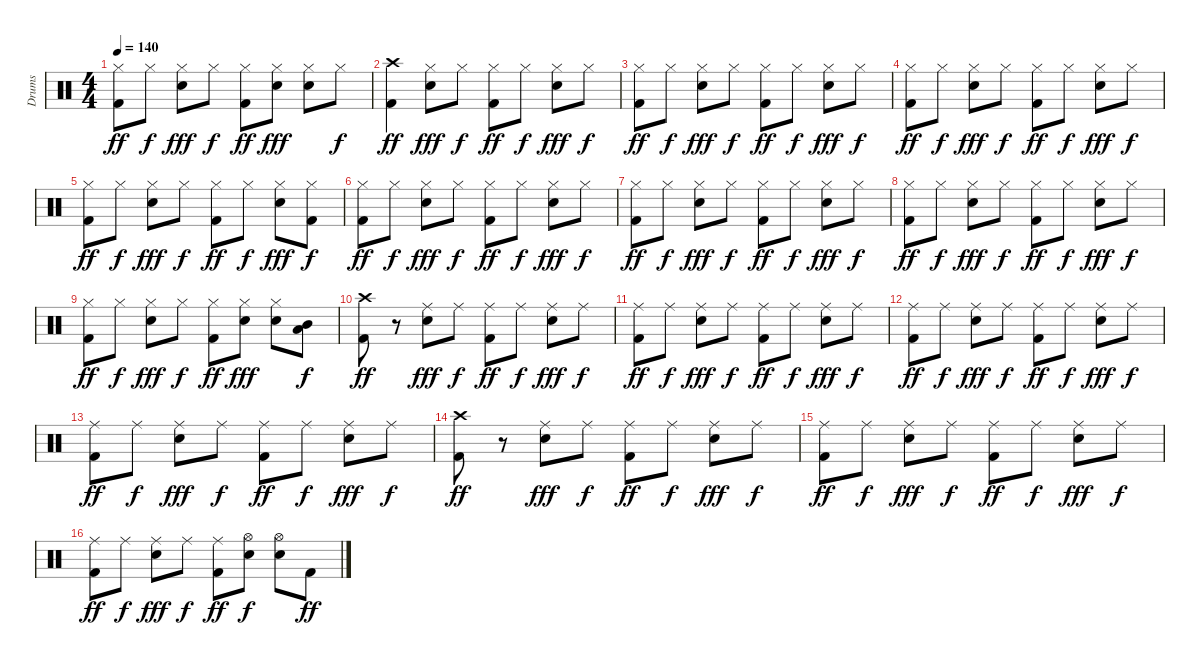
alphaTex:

\track ("Drums" "Drums") {instrument percussion}
\staff {score}
\articulation defaults
\ts (4 4)
\tempo 140
\clef neutral
\ks c
("Hi-Hat (closed)" "Kick (hit) 2").8{dy ff} "Hi-Hat (closed)".8{dy f} ("Hi-Hat (closed)" "Snare (hit) 2").8{dy fff} "Hi-Hat (closed)".8{dy f} ("Hi-Hat (closed)" "Kick (hit) 2").8{dy ff} ("Hi-Hat (closed)" "Snare (hit) 2").8{dy fff} ("Hi-Hat (closed)" "Snare (hit) 2").8 "Hi-Hat (closed)".8{dy f} |
("Crash high (hit)" "Kick (hit) 2").4{dy ff} ("Hi-Hat (closed)" "Snare (hit) 2").8{dy fff} "Hi-Hat (closed)".8{dy f} ("Hi-Hat (closed)" "Kick (hit) 2").8{dy ff} "Hi-Hat (closed)".8{dy f} ("Hi-Hat (closed)" "Snare (hit) 2").8{dy fff} "Hi-Hat (closed)".8{dy f} |
("Hi-Hat (closed)" "Kick (hit) 2").8{dy ff} "Hi-Hat (closed)".8{dy f} ("Hi-Hat (closed)" "Snare (hit) 2").8{dy fff} "Hi-Hat (closed)".8{dy f} ("Hi-Hat (closed)" "Kick (hit) 2").8{dy ff} "Hi-Hat (closed)".8{dy f} ("Hi-Hat (closed)" "Snare (hit) 2").8{dy fff} "Hi-Hat (closed)".8{dy f} |
("Hi-Hat (closed)" "Kick (hit) 2").8{dy ff} "Hi-Hat (closed)".8{dy f} ("Hi-Hat (closed)" "Snare (hit) 2").8{dy fff} "Hi-Hat (closed)".8{dy f} ("Hi-Hat (closed)" "Kick (hit) 2").8{dy ff} "Hi-Hat (closed)".8{dy f} ("Hi-Hat (closed)" "Snare (hit) 2").8{dy fff} "Hi-Hat (closed)".8{dy f} |
("Hi-Hat (closed)" "Kick (hit) 2").8{dy ff} "Hi-Hat (closed)".8{dy f} ("Hi-Hat (closed)" "Snare (hit) 2").8{dy fff} "Hi-Hat (closed)".8{dy f} ("Hi-Hat (closed)" "Kick (hit) 2").8{dy ff} "Hi-Hat (closed)".8{dy f} ("Hi-Hat (closed)" "Snare (hit) 2").8{dy fff} ("Hi-Hat (closed)" "Kick (hit) 2").8{dy f} |
("Hi-Hat (closed)" "Kick (hit) 2").8{dy ff} "Hi-Hat (closed)".8{dy f} ("Hi-Hat (closed)" "Snare (hit) 2").8{dy fff} "Hi-Hat (closed)".8{dy f} ("Hi-Hat (closed)" "Kick (hit) 2").8{dy ff} "Hi-Hat (closed)".8{dy f} ("Hi-Hat (closed)" "Snare (hit) 2").8{dy fff} "Hi-Hat (closed)".8{dy f} |
("Hi-Hat (closed)" "Kick (hit) 2").8{dy ff} "Hi-Hat (closed)".8{dy f} ("Hi-Hat (closed)" "Snare (hit) 2").8{dy fff} "Hi-Hat (closed)".8{dy f} ("Hi-Hat (closed)" "Kick (hit) 2").8{dy ff} "Hi-Hat (closed)".8{dy f} ("Hi-Hat (closed)" "Snare (hit) 2").8{dy fff} "Hi-Hat (closed)".8{dy f} |
("Hi-Hat (closed)" "Kick (hit) 2").8{dy ff} "Hi-Hat (closed)".8{dy f} ("Hi-Hat (closed)" "Snare (hit) 2").8{dy fff} "Hi-Hat (closed)".8{dy f} ("Hi-Hat (closed)" "Kick (hit) 2").8{dy ff} "Hi-Hat (closed)".8{dy f} ("Hi-Hat (closed)" "Snare (hit) 2").8{dy fff} "Hi-Hat (closed)".8{dy f} |
("Hi-Hat (closed)" "Kick (hit) 2").8{dy ff} "Hi-Hat (closed)".8{dy f} ("Hi-Hat (closed)" "Snare (hit) 2").8{dy fff} "Hi-Hat (closed)".8{dy f} ("Hi-Hat (closed)" "Kick (hit) 2").8{dy ff} ("Hi-Hat (closed)" "Snare (hit) 2").8{dy fff} ("Hi-Hat (closed)" "Snare (hit) 2").8 ("Low Tom (hit)" "Mid Tom (hit)").8{dy f} |
("Crash high (hit)" "Kick (hit) 2").8{dy ff} r.8 ("Ride (middle)" "Snare (hit) 2").8{dy fff} "Ride (middle)".8{dy f} ("Ride (middle)" "Kick (hit) 2").8{dy ff} "Ride (middle)".8{dy f} ("Ride (middle)" "Snare (hit) 2").8{dy fff} "Ride (middle)".8{dy f} |
("Ride (middle)" "Kick (hit) 2").8{dy ff} "Ride (middle)".8{dy f} ("Ride (middle)" "Snare (hit) 2").8{dy fff} "Ride (middle)".8{dy f} ("Ride (middle)" "Kick (hit) 2").8{dy ff} "Ride (middle)".8{dy f} ("Ride (middle)" "Snare (hit) 2").8{dy fff} "Ride (middle)".8{dy f} |
("Ride (middle)" "Kick (hit) 2").8{dy ff} "Ride (middle)".8{dy f} ("Ride (middle)" "Snare (hit) 2").8{dy fff} "Ride (middle)".8{dy f} ("Ride (middle)" "Kick (hit) 2").8{dy ff} "Ride (middle)".8{dy f} ("Ride (middle)" "Snare (hit) 2").8{dy fff} "Ride (middle)".8{dy f} |
("Ride (middle)" "Kick (hit) 2").8{dy ff} "Ride (middle)".8{dy f} ("Ride (middle)" "Snare (hit) 2").8{dy fff} "Ride (middle)".8{dy f} ("Ride (middle)" "Kick (hit) 2").8{dy ff} "Ride (middle)".8{dy f} ("Ride (middle)" "Snare (hit) 2").8{dy fff} "Ride (middle)".8{dy f} |
("Crash high (hit)" "Kick (hit) 2").8{dy ff} r.8 ("Ride (middle)" "Snare (hit) 2").8{dy fff} "Ride (middle)".8{dy f} ("Ride (middle)" "Kick (hit) 2").8{dy ff} "Ride (middle)".8{dy f} ("Ride (middle)" "Snare (hit) 2").8{dy fff} "Ride (middle)".8{dy f} |
("Ride (middle)" "Kick (hit) 2").8{dy ff} "Ride (middle)".8{dy f} ("Ride (middle)" "Snare (hit) 2").8{dy fff} "Ride (middle)".8{dy f} ("Ride (middle)" "Kick (hit) 2").8{dy ff} "Ride (middle)".8{dy f} ("Ride (middle)" "Snare (hit) 2").8{dy fff} "Ride (middle)".8{dy f} |
("Ride (middle)" "Kick (hit) 2").8{dy ff} "Ride (middle)".8{dy f} ("Ride (middle)" "Snare (hit) 2").8{dy fff} "Ride (middle)".8{dy f} ("Ride (middle)" "Kick (hit) 2").8{dy ff} ("Hi-Hat (open)" "Snare (hit) 2").8{dy f} ("Hi-Hat (open)" "Snare (hit) 2").8 "Kick (hit) 2".8{dy ff}
